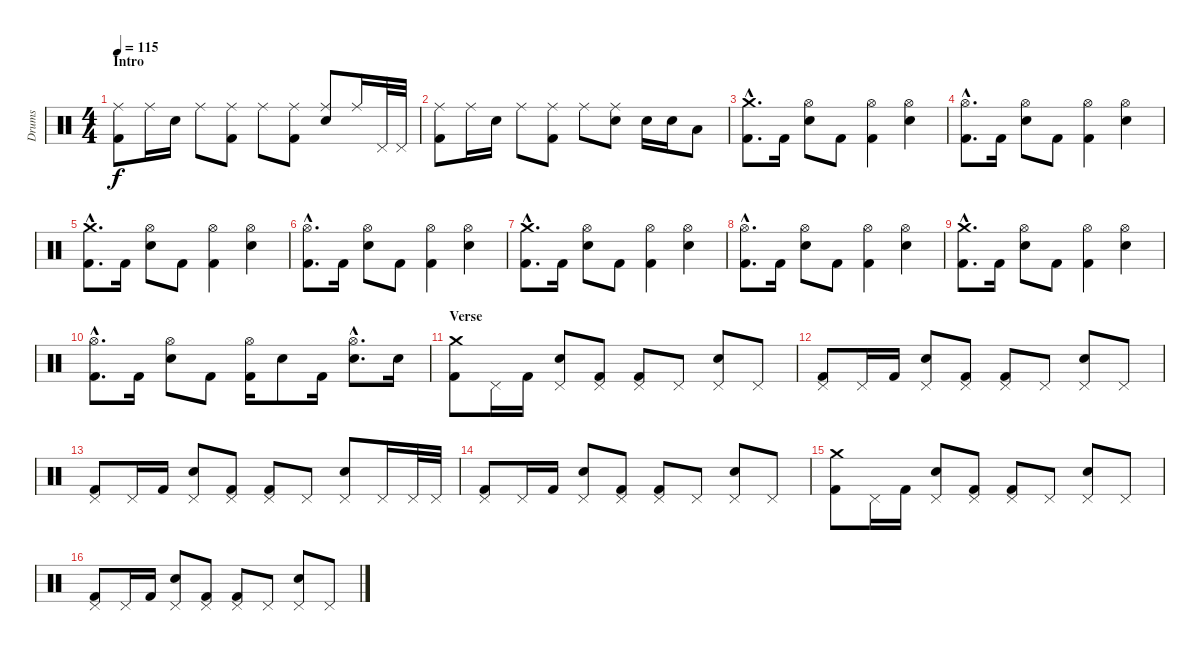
\track ("Drums" "Drums") {instrument percussion}
\staff {score}
\articulation defaults
\ts (4 4)
\section ("" "Intro")
\tempo 115
\clef neutral
\ks c
("Ride (middle)" "Kick (hit) 2").8{dy f} "Ride (middle)".16 "Electric Snare (hit)".16 "Ride (middle)".8 ("Ride (middle)" "Kick (hit) 2").8 "Ride (middle)".8 ("Ride (middle)" "Kick (hit) 2").8 ("Ride (middle)" "Electric Snare (hit)").8 "Ride (middle)".16 "Pedal Hi-Hat (hit)".32 "Pedal Hi-Hat (hit)".32 |
("Ride (middle)" "Kick (hit) 2").8 "Ride (middle)".16 "Electric Snare (hit)".16 "Ride (middle)".8 ("Ride (middle)" "Kick (hit) 2").8 "Ride (middle)".8 ("Ride (middle)" "Electric Snare (hit)").8 "Electric Snare (hit)".16 "Electric Snare (hit)".16 "Low Tom (hit)".8 |
("Crash medium (hit)"{hac} "Kick (hit) 2"{hac}).8{d} "Kick (hit) 2".16 ("Hi-Hat (open)" "Electric Snare (hit)").8 "Kick (hit) 2".8 ("Hi-Hat (open)" "Kick (hit) 2").4 ("Hi-Hat (open)" "Electric Snare (hit)").4 |
("Hi-Hat (open)"{hac} "Kick (hit) 2"{hac}).8{d} "Kick (hit) 2".16 ("Hi-Hat (open)" "Electric Snare (hit)").8 "Kick (hit) 2".8 ("Hi-Hat (open)" "Kick (hit) 2").4 ("Hi-Hat (open)" "Electric Snare (hit)").4 |
("Crash medium (hit)"{hac} "Kick (hit) 2"{hac}).8{d} "Kick (hit) 2".16 ("Hi-Hat (open)" "Electric Snare (hit)").8 "Kick (hit) 2".8 ("Hi-Hat (open)" "Kick (hit) 2").4 ("Hi-Hat (open)" "Electric Snare (hit)").4 |
("Hi-Hat (open)"{hac} "Kick (hit) 2"{hac}).8{d} "Kick (hit) 2".16 ("Hi-Hat (open)" "Electric Snare (hit)").8 "Kick (hit) 2".8 ("Hi-Hat (open)" "Kick (hit) 2").4 ("Hi-Hat (open)" "Electric Snare (hit)").4 |
("Crash medium (hit)"{hac} "Kick (hit) 2"{hac}).8{d} "Kick (hit) 2".16 ("Hi-Hat (open)" "Electric Snare (hit)").8 "Kick (hit) 2".8 ("Hi-Hat (open)" "Kick (hit) 2").4 ("Hi-Hat (open)" "Electric Snare (hit)").4 |
("Hi-Hat (open)"{hac} "Kick (hit) 2"{hac}).8{d} "Kick (hit) 2".16 ("Hi-Hat (open)" "Electric Snare (hit)").8 "Kick (hit) 2".8 ("Hi-Hat (open)" "Kick (hit) 2").4 ("Hi-Hat (open)" "Electric Snare (hit)").4 |
("Crash medium (hit)"{hac} "Kick (hit) 2"{hac}).8{d} "Kick (hit) 2".16 ("Hi-Hat (open)" "Electric Snare (hit)").8 "Kick (hit) 2".8 ("Hi-Hat (open)" "Kick (hit) 2").4 ("Hi-Hat (open)" "Electric Snare (hit)").4 |
("Hi-Hat (open)"{hac} "Kick (hit) 2"{hac}).8{d} "Kick (hit) 2".16 ("Hi-Hat (open)" "Electric Snare (hit)").8 "Kick (hit) 2".8 ("Hi-Hat (open)" "Kick (hit) 2").16 "Electric Snare (hit)".8 "Kick (hit) 2".16 ("Hi-Hat (open)"{hac} "Electric Snare (hit)"{hac}).8{d} "Electric Snare (hit)".16 |
\section ("" "Verse")
("Crash medium (hit)" "Kick (hit) 2").8 "Pedal Hi-Hat (hit)".16 "Kick (hit) 2".16 ("Pedal Hi-Hat (hit)" "Electric Snare (hit)").8 ("Pedal Hi-Hat (hit)" "Kick (hit) 2").8 ("Pedal Hi-Hat (hit)" "Kick (hit) 2").8 "Pedal Hi-Hat (hit)".8 ("Pedal Hi-Hat (hit)" "Electric Snare (hit)").8 "Pedal Hi-Hat (hit)".8 |
("Pedal Hi-Hat (hit)" "Kick (hit) 2").8 "Pedal Hi-Hat (hit)".16 "Kick (hit) 2".16 ("Pedal Hi-Hat (hit)" "Electric Snare (hit)").8 ("Pedal Hi-Hat (hit)" "Kick (hit) 2").8 ("Pedal Hi-Hat (hit)" "Kick (hit) 2").8 "Pedal Hi-Hat (hit)".8 ("Pedal Hi-Hat (hit)" "Electric Snare (hit)").8 "Pedal Hi-Hat (hit)".8 |
("Pedal Hi-Hat (hit)" "Kick (hit) 2").8 "Pedal Hi-Hat (hit)".16 "Kick (hit) 2".16 ("Pedal Hi-Hat (hit)" "Electric Snare (hit)").8 ("Pedal Hi-Hat (hit)" "Kick (hit) 2").8 ("Pedal Hi-Hat (hit)" "Kick (hit) 2").8 "Pedal Hi-Hat (hit)".8 ("Pedal Hi-Hat (hit)" "Electric Snare (hit)").8 "Pedal Hi-Hat (hit)".16 "Pedal Hi-Hat (hit)".32 "Pedal Hi-Hat (hit)".32 |
("Pedal Hi-Hat (hit)" "Kick (hit) 2").8 "Pedal Hi-Hat (hit)".16 "Kick (hit) 2".16 ("Pedal Hi-Hat (hit)" "Electric Snare (hit)").8 ("Pedal Hi-Hat (hit)" "Kick (hit) 2").8 ("Pedal Hi-Hat (hit)" "Kick (hit) 2").8 "Pedal Hi-Hat (hit)".8 ("Pedal Hi-Hat (hit)" "Electric Snare (hit)").8 "Pedal Hi-Hat (hit)".8 |
("Crash medium (hit)" "Kick (hit) 2").8 "Pedal Hi-Hat (hit)".16 "Kick (hit) 2".16 ("Pedal Hi-Hat (hit)" "Electric Snare (hit)").8 ("Pedal Hi-Hat (hit)" "Kick (hit) 2").8 ("Pedal Hi-Hat (hit)" "Kick (hit) 2").8 "Pedal Hi-Hat (hit)".8 ("Pedal Hi-Hat (hit)" "Electric Snare (hit)").8 "Pedal Hi-Hat (hit)".8 |
("Pedal Hi-Hat (hit)" "Kick (hit) 2").8 "Pedal Hi-Hat (hit)".16 "Kick (hit) 2".16 ("Pedal Hi-Hat (hit)" "Electric Snare (hit)").8 ("Pedal Hi-Hat (hit)" "Kick (hit) 2").8 ("Pedal Hi-Hat (hit)" "Kick (hit) 2").8 "Pedal Hi-Hat (hit)".8 ("Pedal Hi-Hat (hit)" "Electric Snare (hit)").8 "Pedal Hi-Hat (hit)".8
